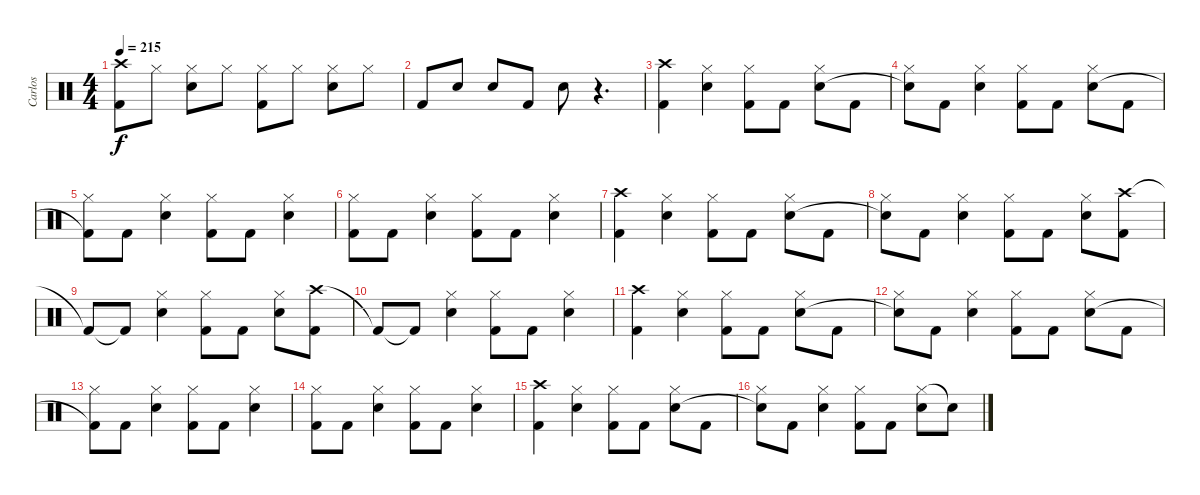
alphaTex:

\track ("Carlos" "Carlos") {instrument percussion}
\staff {score}
\articulation defaults
\ts (4 4)
\tempo 215
\clef neutral
\ks c
("Crash high (hit)" "Kick (hit) 2").8{dy f} "Hi-Hat (closed)".8 ("Hi-Hat (closed)" "Snare (hit) 2").8 "Hi-Hat (closed)".8 ("Hi-Hat (closed)" "Kick (hit) 2").8 "Hi-Hat (closed)".8 ("Hi-Hat (closed)" "Snare (hit) 2").8 "Hi-Hat (closed)".8 |
"Kick (hit) 2".8 "Snare (hit) 2".8 "Snare (hit) 2".8 "Kick (hit) 2".8 "Snare (hit) 2".8 r.4{d} |
("Crash high (hit)" "Kick (hit) 2").4 ("Hi-Hat (closed)" "Snare (hit) 2").4 ("Hi-Hat (closed)" "Kick (hit) 2").8 "Kick (hit) 2".8 ("Hi-Hat (closed)" "Snare (hit) 2").8 "Kick (hit) 2".8 |
("Hi-Hat (closed)" "Snare (hit)"{t}).8 "Kick (hit) 2".8 ("Hi-Hat (closed)" "Snare (hit) 2").4 ("Hi-Hat (closed)" "Kick (hit) 2").8 "Kick (hit) 2".8 ("Hi-Hat (closed)" "Snare (hit) 2").8 "Kick (hit) 2".8 |
("Hi-Hat (closed)" "Kick (hit) 2"{t}).8 "Kick (hit) 2".8 ("Hi-Hat (closed)" "Snare (hit) 2").4 ("Hi-Hat (closed)" "Kick (hit) 2").8 "Kick (hit) 2".8 ("Hi-Hat (closed)" "Snare (hit) 2").4 |
("Hi-Hat (closed)" "Kick (hit) 2").8 "Kick (hit) 2".8 ("Hi-Hat (closed)" "Snare (hit) 2").4 ("Hi-Hat (closed)" "Kick (hit) 2").8 "Kick (hit) 2".8 ("Hi-Hat (closed)" "Snare (hit) 2").4 |
("Crash high (hit)" "Kick (hit) 2").4 ("Hi-Hat (closed)" "Snare (hit) 2").4 ("Hi-Hat (closed)" "Kick (hit) 2").8 "Kick (hit) 2".8 ("Hi-Hat (closed)" "Snare (hit) 2").8 "Kick (hit) 2".8 |
("Hi-Hat (closed)" "Snare (hit)"{t}).8 "Kick (hit) 2".8 ("Hi-Hat (closed)" "Snare (hit) 2").4 ("Hi-Hat (closed)" "Kick (hit) 2").8 "Kick (hit) 2".8 ("Hi-Hat (closed)" "Snare (hit) 2").8 ("Crash high (hit)" "Kick (hit) 2").8 |
"Kick (hit) 2"{t}.8 "Kick (hit) 2"{t}.8 ("Hi-Hat (closed)" "Snare (hit) 2").4 ("Hi-Hat (closed)" "Kick (hit) 2").8 "Kick (hit) 2".8 ("Hi-Hat (closed)" "Snare (hit) 2").8 ("Crash high (hit)" "Kick (hit) 2").8 |
"Kick (hit) 2"{t}.8 "Kick (hit) 2"{t}.8 ("Hi-Hat (closed)" "Snare (hit) 2").4 ("Hi-Hat (closed)" "Kick (hit) 2").8 "Kick (hit) 2".8 ("Hi-Hat (closed)" "Snare (hit) 2").4 |
("Crash high (hit)" "Kick (hit) 2").4 ("Hi-Hat (closed)" "Snare (hit) 2").4 ("Hi-Hat (closed)" "Kick (hit) 2").8 "Kick (hit) 2".8 ("Hi-Hat (closed)" "Snare (hit) 2").8 "Kick (hit) 2".8 |
("Hi-Hat (closed)" "Snare (hit)"{t}).8 "Kick (hit) 2".8 ("Hi-Hat (closed)" "Snare (hit) 2").4 ("Hi-Hat (closed)" "Kick (hit) 2").8 "Kick (hit) 2".8 ("Hi-Hat (closed)" "Snare (hit) 2").8 "Kick (hit) 2".8 |
("Hi-Hat (closed)" "Kick (hit) 2"{t}).8 "Kick (hit) 2".8 ("Hi-Hat (closed)" "Snare (hit) 2").4 ("Hi-Hat (closed)" "Kick (hit) 2").8 "Kick (hit) 2".8 ("Hi-Hat (closed)" "Snare (hit) 2").4 |
("Hi-Hat (closed)" "Kick (hit) 2").8 "Kick (hit) 2".8 ("Hi-Hat (closed)" "Snare (hit) 2").4 ("Hi-Hat (closed)" "Kick (hit) 2").8 "Kick (hit) 2".8 ("Hi-Hat (closed)" "Snare (hit) 2").4 |
("Crash high (hit)" "Kick (hit) 2").4 ("Hi-Hat (closed)" "Snare (hit) 2").4 ("Hi-Hat (closed)" "Kick (hit) 2").8 "Kick (hit) 2".8 ("Hi-Hat (closed)" "Snare (hit) 2").8 "Kick (hit) 2".8 |
("Hi-Hat (closed)" "Snare (hit)"{t}).8 "Kick (hit) 2".8 ("Hi-Hat (closed)" "Snare (hit) 2").4 ("Hi-Hat (closed)" "Kick (hit) 2").8 "Kick (hit) 2".8 ("Hi-Hat (closed)" "Snare (hit) 2").8 "Snare (hit)"{t}.8
